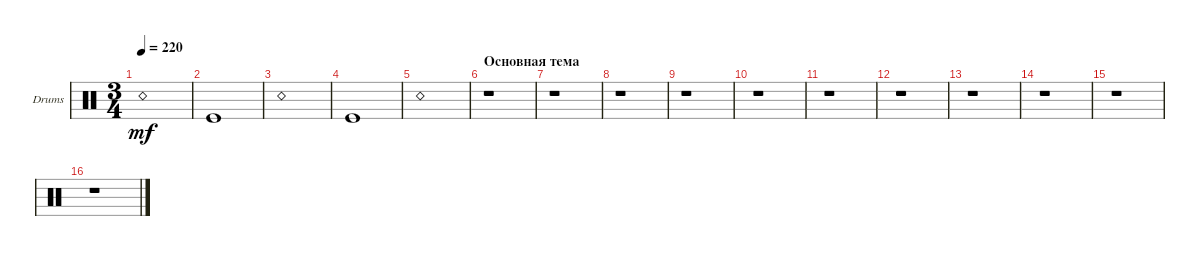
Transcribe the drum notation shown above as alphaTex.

\defaultSystemsLayout 4
\bracketExtendMode groupsimilarinstruments
\firstSystemTrackNameOrientation horizontal
\otherSystemsTrackNameOrientation horizontal
\track ("Drumkit" "Drums") {instrument percussion}
\staff {score}
\articulation defaults
\ts (3 4)
\tempo 220
\clef neutral
\ks c "Snare (rim shot)".1{dy mf}
|
"Kick (hit)".1 |
"Snare (rim shot)".1 |
"Kick (hit)".1 |
"Snare (rim shot)".1 |
\section ("" "Основная тема")
r.1 |
r.1 |
r.1 |
r.1 |
r.1 |
r.1 |
r.1 |
r.1 |
r.1 |
r.1 |
r.1
